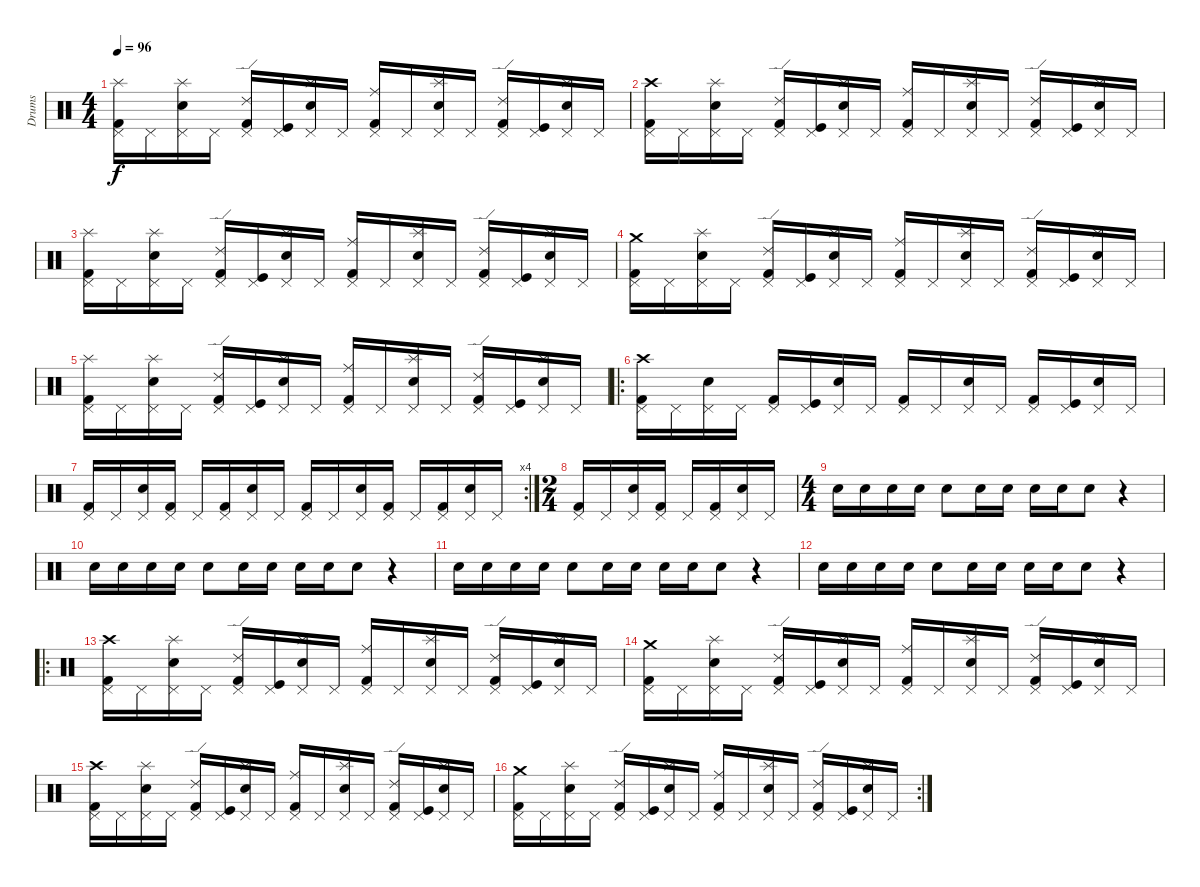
\track ("Drums" "Drums") {instrument percussion}
\staff {score}
\articulation defaults
\ts (4 4)
\tempo 96
\clef neutral
\ks c
("Kick (hit) 2" "Pedal Hi-Hat (hit)" "Splash (hit)").16{dy f} "Pedal Hi-Hat (hit)".16 ("Snare (hit) 2" "Pedal Hi-Hat (hit)" "Splash (hit)").16 "Pedal Hi-Hat (hit)".16 ("Kick (hit) 2" "Pedal Hi-Hat (hit)" "Ride (edge) 2").16 ("Kick (hit)" "Pedal Hi-Hat (hit)").16 ("Snare (hit) 2" "Pedal Hi-Hat (hit)" "Splash (hit)").16 "Pedal Hi-Hat (hit)".16 ("Kick (hit) 2" "Pedal Hi-Hat (hit)" "Ride (middle)").16 "Pedal Hi-Hat (hit)".16 ("Snare (hit) 2" "Pedal Hi-Hat (hit)" "Splash (hit)").16 "Pedal Hi-Hat (hit)".16 ("Kick (hit) 2" "Pedal Hi-Hat (hit)" "Ride (edge) 2").16 ("Kick (hit)" "Pedal Hi-Hat (hit)").16 ("Snare (hit) 2" "Pedal Hi-Hat (hit)" "Splash (hit)").16 "Pedal Hi-Hat (hit)".16 |
("Kick (hit) 2" "Pedal Hi-Hat (hit)" "Crash high (hit)").16 "Pedal Hi-Hat (hit)".16 ("Snare (hit) 2" "Pedal Hi-Hat (hit)" "Splash (hit)").16 "Pedal Hi-Hat (hit)".16 ("Kick (hit) 2" "Pedal Hi-Hat (hit)" "Ride (edge) 2").16 ("Kick (hit)" "Pedal Hi-Hat (hit)").16 ("Snare (hit) 2" "Pedal Hi-Hat (hit)" "Splash (hit)").16 "Pedal Hi-Hat (hit)".16 ("Kick (hit) 2" "Pedal Hi-Hat (hit)" "Ride (middle)").16 "Pedal Hi-Hat (hit)".16 ("Snare (hit) 2" "Pedal Hi-Hat (hit)" "Splash (hit)").16 "Pedal Hi-Hat (hit)".16 ("Kick (hit) 2" "Pedal Hi-Hat (hit)" "Ride (edge) 2").16 ("Kick (hit)" "Pedal Hi-Hat (hit)").16 ("Snare (hit) 2" "Pedal Hi-Hat (hit)" "Splash (hit)").16 "Pedal Hi-Hat (hit)".16 |
("Kick (hit) 2" "Pedal Hi-Hat (hit)" "Splash (hit)").16 "Pedal Hi-Hat (hit)".16 ("Snare (hit) 2" "Pedal Hi-Hat (hit)" "Splash (hit)").16 "Pedal Hi-Hat (hit)".16 ("Kick (hit) 2" "Pedal Hi-Hat (hit)" "Ride (edge) 2").16 ("Kick (hit)" "Pedal Hi-Hat (hit)").16 ("Snare (hit) 2" "Pedal Hi-Hat (hit)" "Splash (hit)").16 "Pedal Hi-Hat (hit)".16 ("Kick (hit) 2" "Pedal Hi-Hat (hit)" "Ride (middle)").16 "Pedal Hi-Hat (hit)".16 ("Snare (hit) 2" "Pedal Hi-Hat (hit)" "Splash (hit)").16 "Pedal Hi-Hat (hit)".16 ("Kick (hit) 2" "Pedal Hi-Hat (hit)" "Ride (edge) 2").16 ("Kick (hit)" "Pedal Hi-Hat (hit)").16 ("Snare (hit) 2" "Pedal Hi-Hat (hit)" "Splash (hit)").16 "Pedal Hi-Hat (hit)".16 |
("Kick (hit) 2" "Pedal Hi-Hat (hit)" "Crash medium (hit)").16 "Pedal Hi-Hat (hit)".16 ("Snare (hit) 2" "Pedal Hi-Hat (hit)" "Splash (hit)").16 "Pedal Hi-Hat (hit)".16 ("Kick (hit) 2" "Pedal Hi-Hat (hit)" "Ride (edge) 2").16 ("Kick (hit)" "Pedal Hi-Hat (hit)").16 ("Snare (hit) 2" "Pedal Hi-Hat (hit)" "Splash (hit)").16 "Pedal Hi-Hat (hit)".16 ("Kick (hit) 2" "Pedal Hi-Hat (hit)" "Ride (middle)").16 "Pedal Hi-Hat (hit)".16 ("Snare (hit) 2" "Pedal Hi-Hat (hit)" "Splash (hit)").16 "Pedal Hi-Hat (hit)".16 ("Kick (hit) 2" "Pedal Hi-Hat (hit)" "Ride (edge) 2").16 ("Kick (hit)" "Pedal Hi-Hat (hit)").16 ("Snare (hit) 2" "Pedal Hi-Hat (hit)" "Splash (hit)").16 "Pedal Hi-Hat (hit)".16 |
("Kick (hit) 2" "Pedal Hi-Hat (hit)" "Splash (hit)").16 "Pedal Hi-Hat (hit)".16 ("Snare (hit) 2" "Pedal Hi-Hat (hit)" "Splash (hit)").16 "Pedal Hi-Hat (hit)".16 ("Kick (hit) 2" "Pedal Hi-Hat (hit)" "Ride (edge) 2").16 ("Kick (hit)" "Pedal Hi-Hat (hit)").16 ("Snare (hit) 2" "Pedal Hi-Hat (hit)" "Splash (hit)").16 "Pedal Hi-Hat (hit)".16 ("Kick (hit) 2" "Pedal Hi-Hat (hit)" "Ride (middle)").16 "Pedal Hi-Hat (hit)".16 ("Snare (hit) 2" "Pedal Hi-Hat (hit)" "Splash (hit)").16 "Pedal Hi-Hat (hit)".16 ("Kick (hit) 2" "Pedal Hi-Hat (hit)" "Ride (edge) 2").16 ("Kick (hit)" "Pedal Hi-Hat (hit)").16 ("Snare (hit) 2" "Pedal Hi-Hat (hit)" "Splash (hit)").16 "Pedal Hi-Hat (hit)".16 |
\ro
("Kick (hit) 2" "Pedal Hi-Hat (hit)" "Crash high (hit)").16 "Pedal Hi-Hat (hit)".16 ("Snare (hit) 2" "Pedal Hi-Hat (hit)").16 "Pedal Hi-Hat (hit)".16 ("Kick (hit) 2" "Pedal Hi-Hat (hit)").16 ("Kick (hit)" "Pedal Hi-Hat (hit)").16 ("Snare (hit) 2" "Pedal Hi-Hat (hit)").16 "Pedal Hi-Hat (hit)".16 ("Kick (hit) 2" "Pedal Hi-Hat (hit)").16 "Pedal Hi-Hat (hit)".16 ("Snare (hit) 2" "Pedal Hi-Hat (hit)").16 "Pedal Hi-Hat (hit)".16 ("Kick (hit) 2" "Pedal Hi-Hat (hit)").16 ("Kick (hit)" "Pedal Hi-Hat (hit)").16 ("Snare (hit) 2" "Pedal Hi-Hat (hit)").16 "Pedal Hi-Hat (hit)".16 |
\rc 4
("Kick (hit) 2" "Pedal Hi-Hat (hit)").16 "Pedal Hi-Hat (hit)".16 ("Snare (hit) 2" "Pedal Hi-Hat (hit)").16 ("Kick (hit) 2" "Pedal Hi-Hat (hit)").16 "Pedal Hi-Hat (hit)".16 ("Kick (hit) 2" "Pedal Hi-Hat (hit)").16 ("Snare (hit) 2" "Pedal Hi-Hat (hit)").16 "Pedal Hi-Hat (hit)".16 ("Kick (hit) 2" "Pedal Hi-Hat (hit)").16 "Pedal Hi-Hat (hit)".16 ("Snare (hit) 2" "Pedal Hi-Hat (hit)").16 ("Kick (hit) 2" "Pedal Hi-Hat (hit)").16 "Pedal Hi-Hat (hit)".16 ("Kick (hit) 2" "Pedal Hi-Hat (hit)").16 ("Snare (hit) 2" "Pedal Hi-Hat (hit)").16 "Pedal Hi-Hat (hit)".16 |
\ts (2 4)
("Kick (hit) 2" "Pedal Hi-Hat (hit)").16 "Pedal Hi-Hat (hit)".16 ("Snare (hit) 2" "Pedal Hi-Hat (hit)").16 ("Kick (hit) 2" "Pedal Hi-Hat (hit)").16 "Pedal Hi-Hat (hit)".16 ("Kick (hit) 2" "Pedal Hi-Hat (hit)").16 ("Snare (hit) 2" "Pedal Hi-Hat (hit)").16 "Pedal Hi-Hat (hit)".16 |
\ts (4 4)
"Snare (hit) 2".16 "Snare (hit) 2".16 "Snare (hit) 2".16 "Snare (hit) 2".16 "Snare (hit) 2".8 "Snare (hit) 2".16 "Snare (hit) 2".16 "Snare (hit) 2".16 "Snare (hit) 2".16 "Snare (hit) 2".8 r.4 |
"Snare (hit) 2".16 "Snare (hit) 2".16 "Snare (hit) 2".16 "Snare (hit) 2".16 "Snare (hit) 2".8 "Snare (hit) 2".16 "Snare (hit) 2".16 "Snare (hit) 2".16 "Snare (hit) 2".16 "Snare (hit) 2".8 r.4 |
"Snare (hit) 2".16 "Snare (hit) 2".16 "Snare (hit) 2".16 "Snare (hit) 2".16 "Snare (hit) 2".8 "Snare (hit) 2".16 "Snare (hit) 2".16 "Snare (hit) 2".16 "Snare (hit) 2".16 "Snare (hit) 2".8 r.4 |
"Snare (hit) 2".16 "Snare (hit) 2".16 "Snare (hit) 2".16 "Snare (hit) 2".16 "Snare (hit) 2".8 "Snare (hit) 2".16 "Snare (hit) 2".16 "Snare (hit) 2".16 "Snare (hit) 2".16 "Snare (hit) 2".8 r.4 |
\ro
("Kick (hit) 2" "Pedal Hi-Hat (hit)" "Crash high (hit)").16 "Pedal Hi-Hat (hit)".16 ("Snare (hit) 2" "Pedal Hi-Hat (hit)" "Splash (hit)").16 "Pedal Hi-Hat (hit)".16 ("Kick (hit) 2" "Pedal Hi-Hat (hit)" "Ride (edge) 2").16 ("Kick (hit)" "Pedal Hi-Hat (hit)").16 ("Snare (hit) 2" "Pedal Hi-Hat (hit)" "Splash (hit)").16 "Pedal Hi-Hat (hit)".16 ("Kick (hit) 2" "Pedal Hi-Hat (hit)" "Ride (middle)").16 "Pedal Hi-Hat (hit)".16 ("Snare (hit) 2" "Pedal Hi-Hat (hit)" "Splash (hit)").16 "Pedal Hi-Hat (hit)".16 ("Kick (hit) 2" "Pedal Hi-Hat (hit)" "Ride (edge) 2").16 ("Kick (hit)" "Pedal Hi-Hat (hit)").16 ("Snare (hit) 2" "Pedal Hi-Hat (hit)" "Splash (hit)").16 "Pedal Hi-Hat (hit)".16 |
("Kick (hit) 2" "Pedal Hi-Hat (hit)" "Crash medium (hit)").16 "Pedal Hi-Hat (hit)".16 ("Snare (hit) 2" "Pedal Hi-Hat (hit)" "Splash (hit)").16 "Pedal Hi-Hat (hit)".16 ("Kick (hit) 2" "Pedal Hi-Hat (hit)" "Ride (edge) 2").16 ("Kick (hit)" "Pedal Hi-Hat (hit)").16 ("Snare (hit) 2" "Pedal Hi-Hat (hit)" "Splash (hit)").16 "Pedal Hi-Hat (hit)".16 ("Kick (hit) 2" "Pedal Hi-Hat (hit)" "Ride (middle)").16 "Pedal Hi-Hat (hit)".16 ("Snare (hit) 2" "Pedal Hi-Hat (hit)" "Splash (hit)").16 "Pedal Hi-Hat (hit)".16 ("Kick (hit) 2" "Pedal Hi-Hat (hit)" "Ride (edge) 2").16 ("Kick (hit)" "Pedal Hi-Hat (hit)").16 ("Snare (hit) 2" "Pedal Hi-Hat (hit)" "Splash (hit)").16 "Pedal Hi-Hat (hit)".16 |
("Kick (hit) 2" "Pedal Hi-Hat (hit)" "Crash high (hit)").16 "Pedal Hi-Hat (hit)".16 ("Snare (hit) 2" "Pedal Hi-Hat (hit)" "Splash (hit)").16 "Pedal Hi-Hat (hit)".16 ("Kick (hit) 2" "Pedal Hi-Hat (hit)" "Ride (edge) 2").16 ("Kick (hit)" "Pedal Hi-Hat (hit)").16 ("Snare (hit) 2" "Pedal Hi-Hat (hit)" "Splash (hit)").16 "Pedal Hi-Hat (hit)".16 ("Kick (hit) 2" "Pedal Hi-Hat (hit)" "Ride (middle)").16 "Pedal Hi-Hat (hit)".16 ("Snare (hit) 2" "Pedal Hi-Hat (hit)" "Splash (hit)").16 "Pedal Hi-Hat (hit)".16 ("Kick (hit) 2" "Pedal Hi-Hat (hit)" "Ride (edge) 2").16 ("Kick (hit)" "Pedal Hi-Hat (hit)").16 ("Snare (hit) 2" "Pedal Hi-Hat (hit)" "Splash (hit)").16 "Pedal Hi-Hat (hit)".16 |
\rc 2
("Kick (hit) 2" "Pedal Hi-Hat (hit)" "Crash medium (hit)").16 "Pedal Hi-Hat (hit)".16 ("Snare (hit) 2" "Pedal Hi-Hat (hit)" "Splash (hit)").16 "Pedal Hi-Hat (hit)".16 ("Kick (hit) 2" "Pedal Hi-Hat (hit)" "Ride (edge) 2").16 ("Kick (hit)" "Pedal Hi-Hat (hit)").16 ("Snare (hit) 2" "Pedal Hi-Hat (hit)" "Splash (hit)").16 "Pedal Hi-Hat (hit)".16 ("Kick (hit) 2" "Pedal Hi-Hat (hit)" "Ride (middle)").16 "Pedal Hi-Hat (hit)".16 ("Snare (hit) 2" "Pedal Hi-Hat (hit)" "Splash (hit)").16 "Pedal Hi-Hat (hit)".16 ("Kick (hit) 2" "Pedal Hi-Hat (hit)" "Ride (edge) 2").16 ("Kick (hit)" "Pedal Hi-Hat (hit)").16 ("Snare (hit) 2" "Pedal Hi-Hat (hit)" "Splash (hit)").16 "Pedal Hi-Hat (hit)".16
